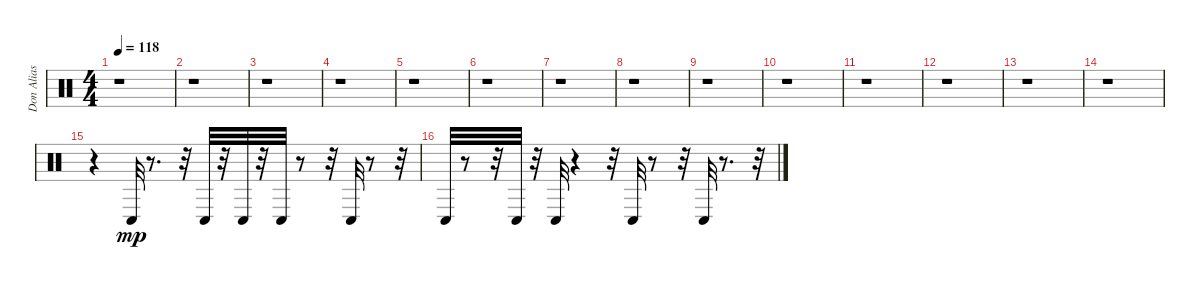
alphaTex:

\track ("Don Alias" "Don Alias") {instrument percussion}
\staff {score}
\articulation defaults
\ts (4 4)
\tempo 118
\clef neutral
\ks c
r.1{dy mp} |
r.1 |
r.1 |
r.1 |
r.1 |
r.1 |
r.1 |
r.1 |
r.1 |
r.1 |
r.1 |
r.1 |
r.1 |
r.1 |
r.4 "Conga low (hit)".32 r.8{d} r.32 "Conga low (hit)".32 r.32 "Conga low (hit)".32 r.32 "Conga low (hit)".32 r.8 r.32 "Conga low (hit)".32 r.8 r.32 |
"Conga low (hit)".32 r.8 r.32 "Conga low (hit)".32 r.32 "Conga low (hit)".32 r.4 r.32 "Conga low (hit)".32 r.8 r.32 "Conga low (hit)".32 r.8{d} r.32
